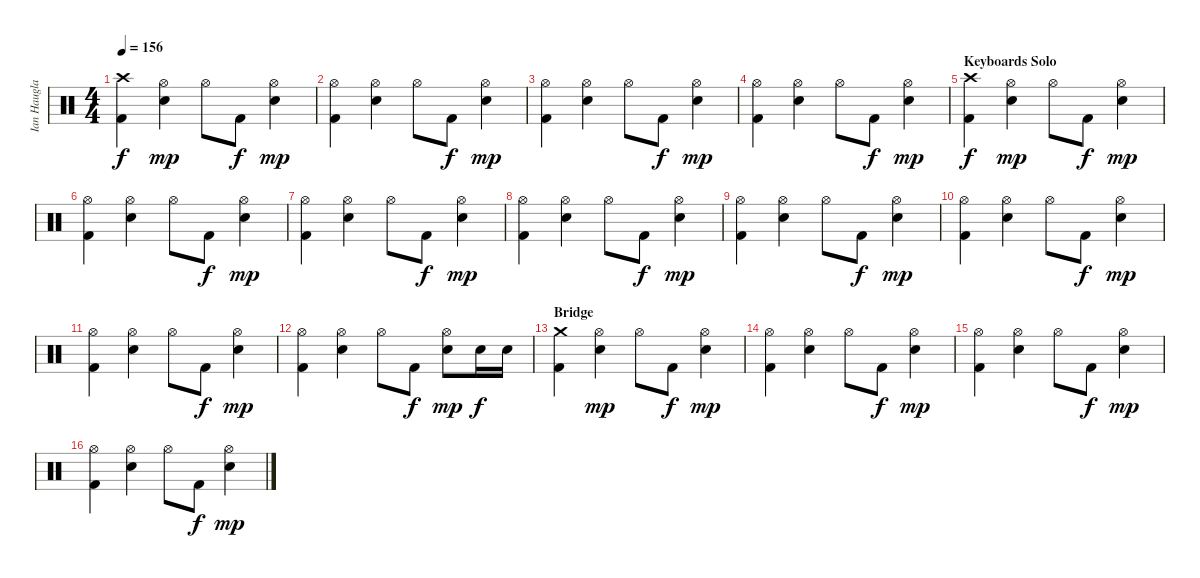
\track ("Ian Haugland" "Ian Haugla") {instrument percussion}
\staff {score}
\articulation defaults
\ts (4 4)
\tempo 156
\clef neutral
\ks c
("Kick (hit) 2" "Crash high (hit)").4{dy f} ("Hi-Hat (open)" "Snare (hit) 2").4{dy mp} "Hi-Hat (open)".8 "Kick (hit) 2".8{dy f} ("Hi-Hat (open)" "Snare (hit) 2").4{dy mp} |
("Kick (hit) 2" "Hi-Hat (open)").4 ("Hi-Hat (open)" "Snare (hit) 2").4 "Hi-Hat (open)".8 "Kick (hit) 2".8{dy f} ("Hi-Hat (open)" "Snare (hit) 2").4{dy mp} |
("Kick (hit) 2" "Hi-Hat (open)").4 ("Hi-Hat (open)" "Snare (hit) 2").4 "Hi-Hat (open)".8 "Kick (hit) 2".8{dy f} ("Hi-Hat (open)" "Snare (hit) 2").4{dy mp} |
("Kick (hit) 2" "Hi-Hat (open)").4 ("Hi-Hat (open)" "Snare (hit) 2").4 "Hi-Hat (open)".8 "Kick (hit) 2".8{dy f} ("Hi-Hat (open)" "Snare (hit) 2").4{dy mp} |
\section ("" "Keyboards Solo")
("Kick (hit) 2" "Crash high (hit)").4{dy f} ("Hi-Hat (open)" "Snare (hit) 2").4{dy mp} "Hi-Hat (open)".8 "Kick (hit) 2".8{dy f} ("Hi-Hat (open)" "Snare (hit) 2").4{dy mp} |
("Kick (hit) 2" "Hi-Hat (open)").4 ("Hi-Hat (open)" "Snare (hit) 2").4 "Hi-Hat (open)".8 "Kick (hit) 2".8{dy f} ("Hi-Hat (open)" "Snare (hit) 2").4{dy mp} |
("Kick (hit) 2" "Hi-Hat (open)").4 ("Hi-Hat (open)" "Snare (hit) 2").4 "Hi-Hat (open)".8 "Kick (hit) 2".8{dy f} ("Hi-Hat (open)" "Snare (hit) 2").4{dy mp} |
("Kick (hit) 2" "Hi-Hat (open)").4 ("Hi-Hat (open)" "Snare (hit) 2").4 "Hi-Hat (open)".8 "Kick (hit) 2".8{dy f} ("Hi-Hat (open)" "Snare (hit) 2").4{dy mp} |
("Kick (hit) 2" "Hi-Hat (open)").4 ("Hi-Hat (open)" "Snare (hit) 2").4 "Hi-Hat (open)".8 "Kick (hit) 2".8{dy f} ("Hi-Hat (open)" "Snare (hit) 2").4{dy mp} |
("Kick (hit) 2" "Hi-Hat (open)").4 ("Hi-Hat (open)" "Snare (hit) 2").4 "Hi-Hat (open)".8 "Kick (hit) 2".8{dy f} ("Hi-Hat (open)" "Snare (hit) 2").4{dy mp} |
("Kick (hit) 2" "Hi-Hat (open)").4 ("Hi-Hat (open)" "Snare (hit) 2").4 "Hi-Hat (open)".8 "Kick (hit) 2".8{dy f} ("Hi-Hat (open)" "Snare (hit) 2").4{dy mp} |
("Kick (hit) 2" "Hi-Hat (open)").4 ("Hi-Hat (open)" "Snare (hit) 2").4 "Hi-Hat (open)".8 "Kick (hit) 2".8{dy f} ("Hi-Hat (open)" "Snare (hit) 2").8{dy mp} "Snare (hit) 2".16{dy f} "Snare (hit) 2".16 |
\section ("" "Bridge")
("Kick (hit) 2" "Crash medium (hit)").4 ("Hi-Hat (open)" "Snare (hit) 2").4{dy mp} "Hi-Hat (open)".8 "Kick (hit) 2".8{dy f} ("Hi-Hat (open)" "Snare (hit) 2").4{dy mp} |
("Kick (hit) 2" "Hi-Hat (open)").4 ("Hi-Hat (open)" "Snare (hit) 2").4 "Hi-Hat (open)".8 "Kick (hit) 2".8{dy f} ("Hi-Hat (open)" "Snare (hit) 2").4{dy mp} |
("Kick (hit) 2" "Hi-Hat (open)").4 ("Hi-Hat (open)" "Snare (hit) 2").4 "Hi-Hat (open)".8 "Kick (hit) 2".8{dy f} ("Hi-Hat (open)" "Snare (hit) 2").4{dy mp} |
("Kick (hit) 2" "Hi-Hat (open)").4 ("Hi-Hat (open)" "Snare (hit) 2").4 "Hi-Hat (open)".8 "Kick (hit) 2".8{dy f} ("Hi-Hat (open)" "Snare (hit) 2").4{dy mp}
